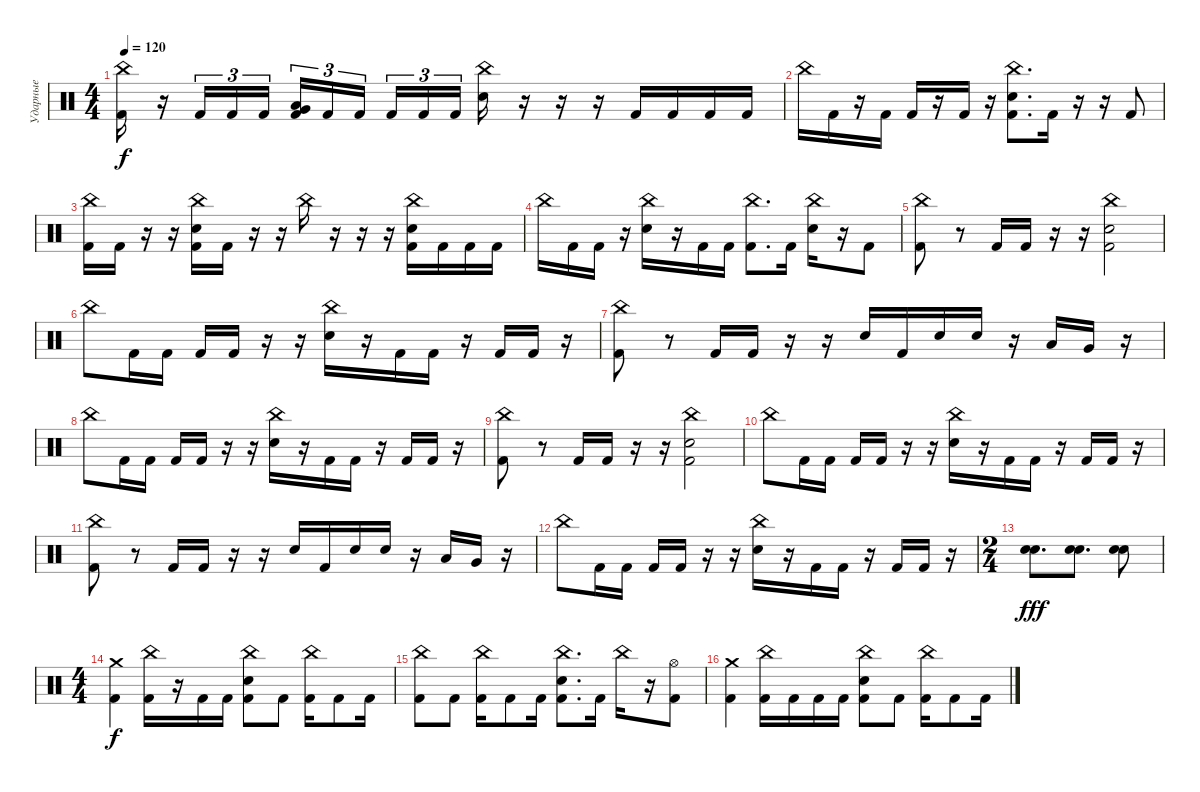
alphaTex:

\track ("Ударные" "Ударные") {instrument percussion}
\staff {score}
\articulation defaults
\ts (4 4)
\tempo 120
\clef neutral
\ks c
("China (hit)" "Kick (hit) 2").16{dy f} r.16 "Kick (hit) 2".16{tu (3 2)} "Kick (hit) 2".16{tu (3 2)} "Kick (hit) 2".16{tu (3 2)} ("Low Floor Tom (hit)" "Very Low Tom (hit)" "Kick (hit) 2").16{tu (3 2)} "Kick (hit) 2".16{tu (3 2)} "Kick (hit) 2".16{tu (3 2) beam splitsecondary} "Kick (hit) 2".16{tu (3 2)} "Kick (hit) 2".16{tu (3 2)} "Kick (hit) 2".16{tu (3 2)} ("China (hit)" "Electric Snare (hit)").16 r.16 r.16 r.16 "Kick (hit) 2".16 "Kick (hit) 2".16 "Kick (hit) 2".16 "Kick (hit) 2".16 |
"China (hit)".16 "Kick (hit) 2".16 r.16 "Kick (hit) 2".16 "Kick (hit) 2".16 r.16 "Kick (hit) 2".16 r.16 ("China (hit)" "Electric Snare (hit)" "Kick (hit) 2").8{d} "Kick (hit) 2".16 r.16 r.16 "Kick (hit) 2".8 |
("China (hit)" "Kick (hit) 2").16 "Kick (hit) 2".16 r.16 r.16 ("China (hit)" "Electric Snare (hit)" "Kick (hit) 2").16 "Kick (hit) 2".16 r.16 r.16 "China (hit)".16 r.16 r.16 r.16 ("China (hit)" "Electric Snare (hit)" "Kick (hit) 2").16 "Kick (hit) 2".16 "Kick (hit) 2".16 "Kick (hit) 2".16 |
"China (hit)".16 "Kick (hit) 2".16 "Kick (hit) 2".16 r.16 ("China (hit)" "Electric Snare (hit)").16 r.16 "Kick (hit) 2".16 "Kick (hit) 2".16 ("China (hit)" "Kick (hit) 2").8{d} "Kick (hit) 2".16 ("China (hit)" "Electric Snare (hit)").16 r.16 "Kick (hit) 2".8 |
("China (hit)" "Kick (hit) 2").8 r.8 "Kick (hit) 2".16 "Kick (hit) 2".16 r.16 r.16 ("China (hit)" "Electric Snare (hit)" "Kick (hit) 2").2 |
"China (hit)".8 "Kick (hit) 2".16 "Kick (hit) 2".16 "Kick (hit) 2".16 "Kick (hit) 2".16 r.16 r.16 ("China (hit)" "Electric Snare (hit)").16 r.16 "Kick (hit) 2".16 "Kick (hit) 2".16 r.16 "Kick (hit) 2".16 "Kick (hit) 2".16 r.16 |
("China (hit)" "Kick (hit) 2").8 r.8 "Kick (hit) 2".16 "Kick (hit) 2".16 r.16 r.16 "Electric Snare (hit)".16 "Kick (hit) 2".16 "Electric Snare (hit)".16 "Electric Snare (hit)".16 r.16 "Low Tom (hit)".16 "Very Low Tom (hit)".16 r.16 |
"China (hit)".8 "Kick (hit) 2".16 "Kick (hit) 2".16 "Kick (hit) 2".16 "Kick (hit) 2".16 r.16 r.16 ("China (hit)" "Electric Snare (hit)").16 r.16 "Kick (hit) 2".16 "Kick (hit) 2".16 r.16 "Kick (hit) 2".16 "Kick (hit) 2".16 r.16 |
("China (hit)" "Kick (hit) 2").8 r.8 "Kick (hit) 2".16 "Kick (hit) 2".16 r.16 r.16 ("China (hit)" "Electric Snare (hit)" "Kick (hit) 2").2 |
"China (hit)".8 "Kick (hit) 2".16 "Kick (hit) 2".16 "Kick (hit) 2".16 "Kick (hit) 2".16 r.16 r.16 ("China (hit)" "Electric Snare (hit)").16 r.16 "Kick (hit) 2".16 "Kick (hit) 2".16 r.16 "Kick (hit) 2".16 "Kick (hit) 2".16 r.16 |
("China (hit)" "Kick (hit) 2").8 r.8 "Kick (hit) 2".16 "Kick (hit) 2".16 r.16 r.16 "Electric Snare (hit)".16 "Kick (hit) 2".16 "Electric Snare (hit)".16 "Electric Snare (hit)".16 r.16 "Low Tom (hit)".16 "Very Low Tom (hit)".16 r.16 |
"China (hit)".8 "Kick (hit) 2".16 "Kick (hit) 2".16 "Kick (hit) 2".16 "Kick (hit) 2".16 r.16 r.16 ("China (hit)" "Electric Snare (hit)").16 r.16 "Kick (hit) 2".16 "Kick (hit) 2".16 r.16 "Kick (hit) 2".16 "Kick (hit) 2".16 r.16 |
\ts (2 4)
("Snare (hit) 2" "Electric Snare (hit)").8{d dy fff} ("Snare (hit) 2" "Electric Snare (hit)").8{d} ("Snare (hit) 2" "Electric Snare (hit)").8 |
\ts (4 4)
("Crash medium (hit)" "Kick (hit) 2").4{dy f} ("China (hit)" "Kick (hit) 2").16 r.16 "Kick (hit) 2".16 "Kick (hit) 2".16 ("China (hit)" "Electric Snare (hit)" "Kick (hit) 2").8 "Kick (hit) 2".8 ("China (hit)" "Kick (hit) 2").16 "Kick (hit) 2".8 "Kick (hit) 2".16 |
("China (hit)" "Kick (hit) 2").8 "Kick (hit) 2".8 ("China (hit)" "Kick (hit) 2").16 "Kick (hit) 2".8 "Kick (hit) 2".16 ("China (hit)" "Electric Snare (hit)" "Kick (hit) 2").8{d} "Kick (hit) 2".16 "China (hit)".16 r.16 ("Hi-Hat (open)" "Kick (hit) 2").8 |
("Crash medium (hit)" "Kick (hit) 2").4 ("China (hit)" "Kick (hit) 2").16 "Kick (hit) 2".16 "Kick (hit) 2".16 "Kick (hit) 2".16 ("China (hit)" "Electric Snare (hit)" "Kick (hit) 2").8 "Kick (hit) 2".8 ("China (hit)" "Kick (hit) 2").16 "Kick (hit) 2".8 "Kick (hit) 2".16
